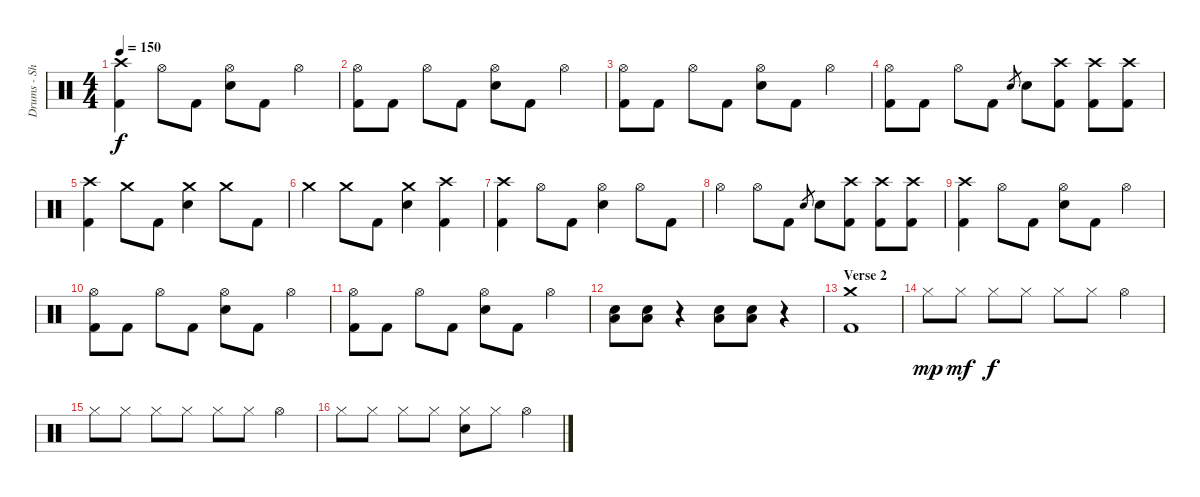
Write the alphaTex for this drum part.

\track ("Drums - Shelton" "Drums - Sh") {instrument percussion}
\staff {score}
\articulation defaults
\ts (4 4)
\tempo 150
\clef neutral
\ks c
("Crash high (hit)" "Kick (hit) 2").4{dy f} "Hi-Hat (open)".8 "Kick (hit) 2".8 ("Hi-Hat (open)" "Electric Snare (hit)").8 "Kick (hit) 2".8 "Hi-Hat (open)".4 |
("Hi-Hat (open)" "Kick (hit) 2").8 "Kick (hit) 2".8 "Hi-Hat (open)".8 "Kick (hit) 2".8 ("Hi-Hat (open)" "Electric Snare (hit)").8 "Kick (hit) 2".8 "Hi-Hat (open)".4 |
("Hi-Hat (open)" "Kick (hit) 2").8 "Kick (hit) 2".8 "Hi-Hat (open)".8 "Kick (hit) 2".8 ("Hi-Hat (open)" "Electric Snare (hit)").8 "Kick (hit) 2".8 "Hi-Hat (open)".4 |
("Hi-Hat (open)" "Kick (hit) 2").8 "Kick (hit) 2".8 "Hi-Hat (open)".8 "Kick (hit) 2".8 "Electric Snare (hit)".8{gr} "Electric Snare (hit)".8 ("Crash high (hit)" "Kick (hit) 2").8 ("Crash high (hit)" "Kick (hit) 2").8 ("Crash high (hit)" "Kick (hit) 2").8 |
("Crash high (hit)" "Kick (hit) 2").4 "Crash medium (hit)".8 "Kick (hit) 2".8 ("Crash medium (hit)" "Electric Snare (hit)").4 "Crash medium (hit)".8 "Kick (hit) 2".8 |
"Crash medium (hit)".4 "Crash medium (hit)".8 "Kick (hit) 2".8 ("Crash medium (hit)" "Electric Snare (hit)").4 ("Crash high (hit)" "Kick (hit) 2").4 |
("Crash high (hit)" "Kick (hit) 2").4 "Hi-Hat (open)".8 "Kick (hit) 2".8 ("Hi-Hat (open)" "Electric Snare (hit)").4 "Hi-Hat (open)".8 "Kick (hit) 2".8 |
"Hi-Hat (open)".4 "Hi-Hat (open)".8 "Kick (hit) 2".8 "Electric Snare (hit)".8{gr} "Electric Snare (hit)".8 ("Crash high (hit)" "Kick (hit) 2").8 ("Crash high (hit)" "Kick (hit) 2").8 ("Crash high (hit)" "Kick (hit) 2").8 |
("Crash high (hit)" "Kick (hit) 2").4 "Hi-Hat (open)".8 "Kick (hit) 2".8 ("Hi-Hat (open)" "Electric Snare (hit)").8 "Kick (hit) 2".8 "Hi-Hat (open)".4 |
("Hi-Hat (open)" "Kick (hit) 2").8 "Kick (hit) 2".8 "Hi-Hat (open)".8 "Kick (hit) 2".8 ("Hi-Hat (open)" "Electric Snare (hit)").8 "Kick (hit) 2".8 "Hi-Hat (open)".4 |
("Hi-Hat (open)" "Kick (hit) 2").8 "Kick (hit) 2".8 "Hi-Hat (open)".8 "Kick (hit) 2".8 ("Hi-Hat (open)" "Electric Snare (hit)").8 "Kick (hit) 2".8 "Hi-Hat (open)".4 |
("Low Tom (hit)" "Electric Snare (hit)").8 ("Low Tom (hit)" "Electric Snare (hit)").8 r.4 ("Low Tom (hit)" "Electric Snare (hit)").8 ("Low Tom (hit)" "Electric Snare (hit)").8 r.4 |
\section ("" "Verse 2")
("Crash medium (hit)" "Kick (hit) 2").1 |
"Hi-Hat (closed)".8{dy mp} "Hi-Hat (closed)".8{dy mf} "Hi-Hat (closed)".8{dy f} "Hi-Hat (closed)".8 "Hi-Hat (closed)".8 "Hi-Hat (closed)".8 "Hi-Hat (open)".4 |
"Hi-Hat (closed)".8 "Hi-Hat (closed)".8 "Hi-Hat (closed)".8 "Hi-Hat (closed)".8 "Hi-Hat (closed)".8 "Hi-Hat (closed)".8 "Hi-Hat (open)".4 |
"Hi-Hat (closed)".8 "Hi-Hat (closed)".8 "Hi-Hat (closed)".8 "Hi-Hat (closed)".8 ("Hi-Hat (closed)" "Electric Snare (hit)").8 "Hi-Hat (closed)".8 "Hi-Hat (open)".4
